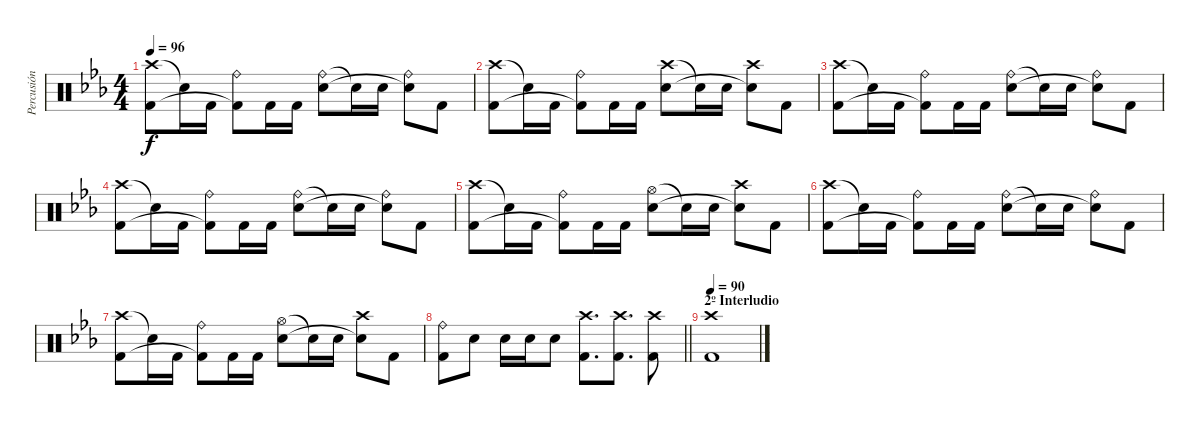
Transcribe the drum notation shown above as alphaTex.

\track ("Percusión" "Percusión") {instrument percussion}
\staff {score}
\articulation defaults
\ts (4 4)
\tempo 96
\clef neutral
\ks eb
("Crash high (hit)" "Kick (hit) 2").8{dy f} "Snare (hit)"{t}.16 "Kick (hit) 2".16 ("Ride (bell)" "Kick (hit) 2"{t}).8 "Kick (hit) 2".16 "Kick (hit) 2".16 ("Ride (bell)" "Electric Snare (hit)").8 "Snare (hit)"{t}.16 "Electric Snare (hit)".16 ("Ride (bell)" "Snare (hit)"{t}).8 "Kick (hit) 2".8 |
("Crash high (hit)" "Kick (hit) 2").8 "Snare (hit)"{t}.16 "Kick (hit) 2".16 ("Ride (bell)" "Kick (hit) 2"{t}).8 "Kick (hit) 2".16 "Kick (hit) 2".16 ("Crash high (hit)" "Electric Snare (hit)").8 "Snare (hit)"{t}.16 "Electric Snare (hit)".16 ("Crash high (hit)" "Snare (hit)"{t}).8 "Kick (hit) 2".8 |
("Crash high (hit)" "Kick (hit) 2").8 "Snare (hit)"{t}.16 "Kick (hit) 2".16 ("Ride (bell)" "Kick (hit) 2"{t}).8 "Kick (hit) 2".16 "Kick (hit) 2".16 ("Ride (bell)" "Electric Snare (hit)").8 "Snare (hit)"{t}.16 "Electric Snare (hit)".16 ("Ride (bell)" "Snare (hit)"{t}).8 "Kick (hit) 2".8 |
("Crash high (hit)" "Kick (hit) 2").8 "Snare (hit)"{t}.16 "Kick (hit) 2".16 ("Ride (bell)" "Kick (hit) 2"{t}).8 "Kick (hit) 2".16 "Kick (hit) 2".16 ("Ride (bell)" "Electric Snare (hit)").8 "Snare (hit)"{t}.16 "Electric Snare (hit)".16 ("Ride (bell)" "Snare (hit)"{t}).8 "Kick (hit) 2".8 |
("Crash high (hit)" "Kick (hit) 2").8 "Snare (hit)"{t}.16 "Kick (hit) 2".16 ("Ride (bell)" "Kick (hit) 2"{t}).8 "Kick (hit) 2".16 "Kick (hit) 2".16 ("Hi-Hat (open)" "Electric Snare (hit)").8 "Snare (hit)"{t}.16 "Electric Snare (hit)".16 ("Crash high (hit)" "Snare (hit)"{t}).8 "Kick (hit) 2".8 |
("Crash high (hit)" "Kick (hit) 2").8 "Snare (hit)"{t}.16 "Kick (hit) 2".16 ("Ride (bell)" "Kick (hit) 2"{t}).8 "Kick (hit) 2".16 "Kick (hit) 2".16 ("Ride (bell)" "Electric Snare (hit)").8 "Snare (hit)"{t}.16 "Electric Snare (hit)".16 ("Ride (bell)" "Snare (hit)"{t}).8 "Kick (hit) 2".8 |
("Crash high (hit)" "Kick (hit) 2").8 "Snare (hit)"{t}.16 "Kick (hit) 2".16 ("Ride (bell)" "Kick (hit) 2"{t}).8 "Kick (hit) 2".16 "Kick (hit) 2".16 ("Hi-Hat (open)" "Electric Snare (hit)").8 "Snare (hit)"{t}.16 "Electric Snare (hit)".16 ("Crash high (hit)" "Snare (hit)"{t}).8 "Kick (hit) 2".8 |
\barLineRight lightlight
("Ride (bell)" "Kick (hit) 2").8 "Electric Snare (hit)".8 "Electric Snare (hit)".16 "Electric Snare (hit)".16 "Electric Snare (hit)".8 ("Crash high (hit)" "Kick (hit) 2").8{d} ("Crash high (hit)" "Kick (hit) 2").8{d} ("Crash high (hit)" "Kick (hit) 2").8 |
\section ("" "2º Interludio")
\tempo 90
("Crash high (hit)" "Kick (hit) 2").1
